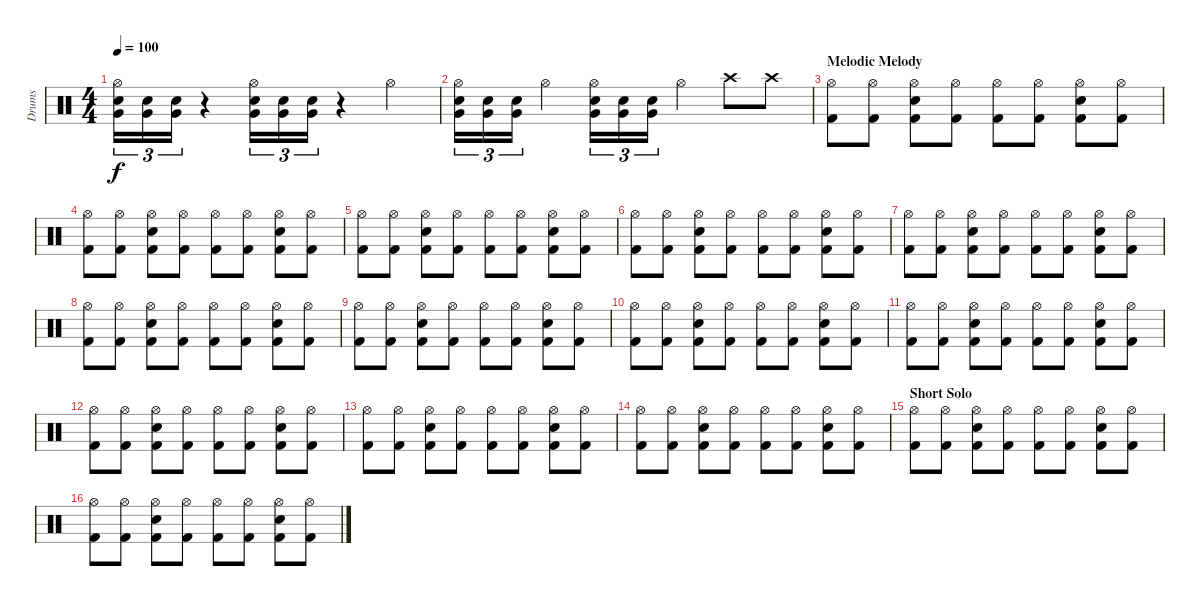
\track ("Drums" "Drums") {instrument percussion}
\staff {score}
\articulation defaults
\ts (4 4)
\tempo 100
\clef neutral
\ks c
("Hi-Hat (open)" "Electric Snare (hit)" "Very Low Tom (hit)").16{tu (3 2) dy f} ("Electric Snare (hit)" "Very Low Tom (hit)").16{tu (3 2)} ("Electric Snare (hit)" "Very Low Tom (hit)").16{tu (3 2)} r.4 ("Hi-Hat (open)" "Electric Snare (hit)" "Very Low Tom (hit)").16{tu (3 2)} ("Electric Snare (hit)" "Very Low Tom (hit)").16{tu (3 2)} ("Electric Snare (hit)" "Very Low Tom (hit)").16{tu (3 2)} r.4 "Hi-Hat (open)".4 |
("Hi-Hat (open)" "Electric Snare (hit)" "Very Low Tom (hit)").16{tu (3 2)} ("Electric Snare (hit)" "Very Low Tom (hit)").16{tu (3 2)} ("Electric Snare (hit)" "Very Low Tom (hit)").16{tu (3 2)} "Hi-Hat (open)".4 ("Hi-Hat (open)" "Electric Snare (hit)" "Very Low Tom (hit)").16{tu (3 2)} ("Electric Snare (hit)" "Very Low Tom (hit)").16{tu (3 2)} ("Electric Snare (hit)" "Very Low Tom (hit)").16{tu (3 2)} "Hi-Hat (open)".4 "Crash high (hit)".8 "Crash high (hit)".8 |
\section ("" "Melodic Melody")
("Hi-Hat (open)" "Kick (hit) 2").8 ("Hi-Hat (open)" "Kick (hit) 2").8 ("Hi-Hat (open)" "Electric Snare (hit)" "Kick (hit) 2").8 ("Hi-Hat (open)" "Kick (hit) 2").8 ("Hi-Hat (open)" "Kick (hit) 2").8 ("Hi-Hat (open)" "Kick (hit) 2").8 ("Hi-Hat (open)" "Electric Snare (hit)" "Kick (hit) 2").8 ("Hi-Hat (open)" "Kick (hit) 2").8 |
("Hi-Hat (open)" "Kick (hit) 2").8 ("Hi-Hat (open)" "Kick (hit) 2").8 ("Hi-Hat (open)" "Electric Snare (hit)" "Kick (hit) 2").8 ("Hi-Hat (open)" "Kick (hit) 2").8 ("Hi-Hat (open)" "Kick (hit) 2").8 ("Hi-Hat (open)" "Kick (hit) 2").8 ("Hi-Hat (open)" "Electric Snare (hit)" "Kick (hit) 2").8 ("Hi-Hat (open)" "Kick (hit) 2").8 |
("Hi-Hat (open)" "Kick (hit) 2").8 ("Hi-Hat (open)" "Kick (hit) 2").8 ("Hi-Hat (open)" "Electric Snare (hit)" "Kick (hit) 2").8 ("Hi-Hat (open)" "Kick (hit) 2").8 ("Hi-Hat (open)" "Kick (hit) 2").8 ("Hi-Hat (open)" "Kick (hit) 2").8 ("Hi-Hat (open)" "Electric Snare (hit)" "Kick (hit) 2").8 ("Hi-Hat (open)" "Kick (hit) 2").8 |
("Hi-Hat (open)" "Kick (hit) 2").8 ("Hi-Hat (open)" "Kick (hit) 2").8 ("Hi-Hat (open)" "Electric Snare (hit)" "Kick (hit) 2").8 ("Hi-Hat (open)" "Kick (hit) 2").8 ("Hi-Hat (open)" "Kick (hit) 2").8 ("Hi-Hat (open)" "Kick (hit) 2").8 ("Hi-Hat (open)" "Electric Snare (hit)" "Kick (hit) 2").8 ("Hi-Hat (open)" "Kick (hit) 2").8 |
("Hi-Hat (open)" "Kick (hit) 2").8 ("Hi-Hat (open)" "Kick (hit) 2").8 ("Hi-Hat (open)" "Electric Snare (hit)" "Kick (hit) 2").8 ("Hi-Hat (open)" "Kick (hit) 2").8 ("Hi-Hat (open)" "Kick (hit) 2").8 ("Hi-Hat (open)" "Kick (hit) 2").8 ("Hi-Hat (open)" "Electric Snare (hit)" "Kick (hit) 2").8 ("Hi-Hat (open)" "Kick (hit) 2").8 |
("Hi-Hat (open)" "Kick (hit) 2").8 ("Hi-Hat (open)" "Kick (hit) 2").8 ("Hi-Hat (open)" "Electric Snare (hit)" "Kick (hit) 2").8 ("Hi-Hat (open)" "Kick (hit) 2").8 ("Hi-Hat (open)" "Kick (hit) 2").8 ("Hi-Hat (open)" "Kick (hit) 2").8 ("Hi-Hat (open)" "Electric Snare (hit)" "Kick (hit) 2").8 ("Hi-Hat (open)" "Kick (hit) 2").8 |
("Hi-Hat (open)" "Kick (hit) 2").8 ("Hi-Hat (open)" "Kick (hit) 2").8 ("Hi-Hat (open)" "Electric Snare (hit)" "Kick (hit) 2").8 ("Hi-Hat (open)" "Kick (hit) 2").8 ("Hi-Hat (open)" "Kick (hit) 2").8 ("Hi-Hat (open)" "Kick (hit) 2").8 ("Hi-Hat (open)" "Electric Snare (hit)" "Kick (hit) 2").8 ("Hi-Hat (open)" "Kick (hit) 2").8 |
("Hi-Hat (open)" "Kick (hit) 2").8 ("Hi-Hat (open)" "Kick (hit) 2").8 ("Hi-Hat (open)" "Electric Snare (hit)" "Kick (hit) 2").8 ("Hi-Hat (open)" "Kick (hit) 2").8 ("Hi-Hat (open)" "Kick (hit) 2").8 ("Hi-Hat (open)" "Kick (hit) 2").8 ("Hi-Hat (open)" "Electric Snare (hit)" "Kick (hit) 2").8 ("Hi-Hat (open)" "Kick (hit) 2").8 |
("Hi-Hat (open)" "Kick (hit) 2").8 ("Hi-Hat (open)" "Kick (hit) 2").8 ("Hi-Hat (open)" "Electric Snare (hit)" "Kick (hit) 2").8 ("Hi-Hat (open)" "Kick (hit) 2").8 ("Hi-Hat (open)" "Kick (hit) 2").8 ("Hi-Hat (open)" "Kick (hit) 2").8 ("Hi-Hat (open)" "Electric Snare (hit)" "Kick (hit) 2").8 ("Hi-Hat (open)" "Kick (hit) 2").8 |
("Hi-Hat (open)" "Kick (hit) 2").8 ("Hi-Hat (open)" "Kick (hit) 2").8 ("Hi-Hat (open)" "Electric Snare (hit)" "Kick (hit) 2").8 ("Hi-Hat (open)" "Kick (hit) 2").8 ("Hi-Hat (open)" "Kick (hit) 2").8 ("Hi-Hat (open)" "Kick (hit) 2").8 ("Hi-Hat (open)" "Electric Snare (hit)" "Kick (hit) 2").8 ("Hi-Hat (open)" "Kick (hit) 2").8 |
("Hi-Hat (open)" "Kick (hit) 2").8 ("Hi-Hat (open)" "Kick (hit) 2").8 ("Hi-Hat (open)" "Electric Snare (hit)" "Kick (hit) 2").8 ("Hi-Hat (open)" "Kick (hit) 2").8 ("Hi-Hat (open)" "Kick (hit) 2").8 ("Hi-Hat (open)" "Kick (hit) 2").8 ("Hi-Hat (open)" "Electric Snare (hit)" "Kick (hit) 2").8 ("Hi-Hat (open)" "Kick (hit) 2").8 |
("Hi-Hat (open)" "Kick (hit) 2").8 ("Hi-Hat (open)" "Kick (hit) 2").8 ("Hi-Hat (open)" "Electric Snare (hit)" "Kick (hit) 2").8 ("Hi-Hat (open)" "Kick (hit) 2").8 ("Hi-Hat (open)" "Kick (hit) 2").8 ("Hi-Hat (open)" "Kick (hit) 2").8 ("Hi-Hat (open)" "Electric Snare (hit)" "Kick (hit) 2").8 ("Hi-Hat (open)" "Kick (hit) 2").8 |
\section ("" "Short Solo")
("Hi-Hat (open)" "Kick (hit) 2").8 ("Hi-Hat (open)" "Kick (hit) 2").8 ("Hi-Hat (open)" "Electric Snare (hit)" "Kick (hit) 2").8 ("Hi-Hat (open)" "Kick (hit) 2").8 ("Hi-Hat (open)" "Kick (hit) 2").8 ("Hi-Hat (open)" "Kick (hit) 2").8 ("Hi-Hat (open)" "Electric Snare (hit)" "Kick (hit) 2").8 ("Hi-Hat (open)" "Kick (hit) 2").8 |
("Hi-Hat (open)" "Kick (hit) 2").8 ("Hi-Hat (open)" "Kick (hit) 2").8 ("Hi-Hat (open)" "Electric Snare (hit)" "Kick (hit) 2").8 ("Hi-Hat (open)" "Kick (hit) 2").8 ("Hi-Hat (open)" "Kick (hit) 2").8 ("Hi-Hat (open)" "Kick (hit) 2").8 ("Hi-Hat (open)" "Electric Snare (hit)" "Kick (hit) 2").8 ("Hi-Hat (open)" "Kick (hit) 2").8
